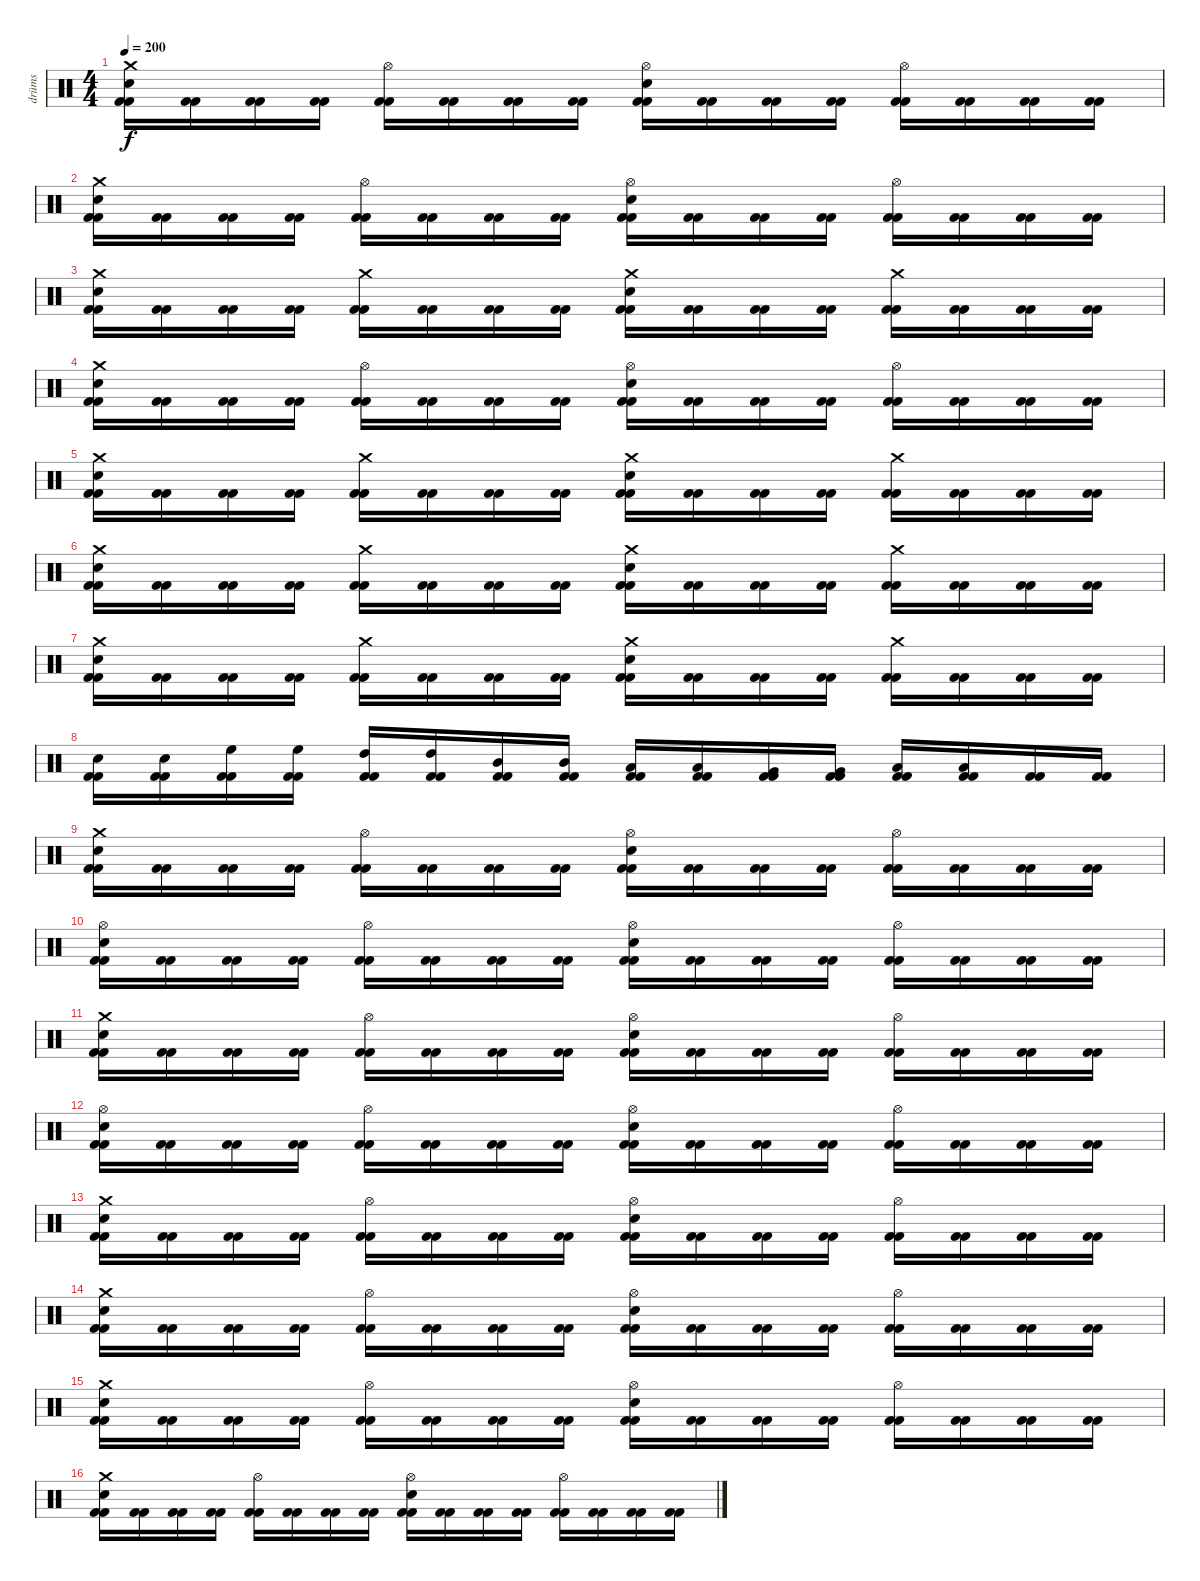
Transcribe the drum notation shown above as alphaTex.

\track ("drüms" "drüms") {instrument percussion}
\staff {score}
\articulation defaults
\ts (4 4)
\tempo 200
\clef neutral
\ks c
("Crash medium (hit)" "Snare (hit) 2" "Kick (hit) 2" "Kick (hit) 2").16{dy f} ("Kick (hit) 2" "Kick (hit) 2").16 ("Kick (hit) 2" "Kick (hit) 2").16 ("Kick (hit) 2" "Kick (hit) 2").16 ("Hi-Hat (open)" "Kick (hit) 2" "Kick (hit) 2").16 ("Kick (hit) 2" "Kick (hit) 2").16 ("Kick (hit) 2" "Kick (hit) 2").16 ("Kick (hit) 2" "Kick (hit) 2").16 ("Hi-Hat (open)" "Snare (hit) 2" "Kick (hit) 2" "Kick (hit) 2").16 ("Kick (hit) 2" "Kick (hit) 2").16 ("Kick (hit) 2" "Kick (hit) 2").16 ("Kick (hit) 2" "Kick (hit) 2").16 ("Hi-Hat (open)" "Kick (hit) 2" "Kick (hit) 2").16 ("Kick (hit) 2" "Kick (hit) 2").16 ("Kick (hit) 2" "Kick (hit) 2").16 ("Kick (hit) 2" "Kick (hit) 2").16 |
("Crash medium (hit)" "Snare (hit) 2" "Kick (hit) 2" "Kick (hit) 2").16 ("Kick (hit) 2" "Kick (hit) 2").16 ("Kick (hit) 2" "Kick (hit) 2").16 ("Kick (hit) 2" "Kick (hit) 2").16 ("Hi-Hat (open)" "Kick (hit) 2" "Kick (hit) 2").16 ("Kick (hit) 2" "Kick (hit) 2").16 ("Kick (hit) 2" "Kick (hit) 2").16 ("Kick (hit) 2" "Kick (hit) 2").16 ("Hi-Hat (open)" "Snare (hit) 2" "Kick (hit) 2" "Kick (hit) 2").16 ("Kick (hit) 2" "Kick (hit) 2").16 ("Kick (hit) 2" "Kick (hit) 2").16 ("Kick (hit) 2" "Kick (hit) 2").16 ("Hi-Hat (open)" "Kick (hit) 2" "Kick (hit) 2").16 ("Kick (hit) 2" "Kick (hit) 2").16 ("Kick (hit) 2" "Kick (hit) 2").16 ("Kick (hit) 2" "Kick (hit) 2").16 |
("Crash medium (hit)" "Snare (hit) 2" "Kick (hit) 2" "Kick (hit) 2").16 ("Kick (hit) 2" "Kick (hit) 2").16 ("Kick (hit) 2" "Kick (hit) 2").16 ("Kick (hit) 2" "Kick (hit) 2").16 ("Crash medium (hit)" "Kick (hit) 2" "Kick (hit) 2").16 ("Kick (hit) 2" "Kick (hit) 2").16 ("Kick (hit) 2" "Kick (hit) 2").16 ("Kick (hit) 2" "Kick (hit) 2").16 ("Crash medium (hit)" "Snare (hit) 2" "Kick (hit) 2" "Kick (hit) 2").16 ("Kick (hit) 2" "Kick (hit) 2").16 ("Kick (hit) 2" "Kick (hit) 2").16 ("Kick (hit) 2" "Kick (hit) 2").16 ("Crash medium (hit)" "Kick (hit) 2" "Kick (hit) 2").16 ("Kick (hit) 2" "Kick (hit) 2").16 ("Kick (hit) 2" "Kick (hit) 2").16 ("Kick (hit) 2" "Kick (hit) 2").16 |
("Crash medium (hit)" "Snare (hit) 2" "Kick (hit) 2" "Kick (hit) 2").16 ("Kick (hit) 2" "Kick (hit) 2").16 ("Kick (hit) 2" "Kick (hit) 2").16 ("Kick (hit) 2" "Kick (hit) 2").16 ("Hi-Hat (open)" "Kick (hit) 2" "Kick (hit) 2").16 ("Kick (hit) 2" "Kick (hit) 2").16 ("Kick (hit) 2" "Kick (hit) 2").16 ("Kick (hit) 2" "Kick (hit) 2").16 ("Hi-Hat (open)" "Snare (hit) 2" "Kick (hit) 2" "Kick (hit) 2").16 ("Kick (hit) 2" "Kick (hit) 2").16 ("Kick (hit) 2" "Kick (hit) 2").16 ("Kick (hit) 2" "Kick (hit) 2").16 ("Hi-Hat (open)" "Kick (hit) 2" "Kick (hit) 2").16 ("Kick (hit) 2" "Kick (hit) 2").16 ("Kick (hit) 2" "Kick (hit) 2").16 ("Kick (hit) 2" "Kick (hit) 2").16 |
("Crash medium (hit)" "Snare (hit) 2" "Kick (hit) 2" "Kick (hit) 2").16 ("Kick (hit) 2" "Kick (hit) 2").16 ("Kick (hit) 2" "Kick (hit) 2").16 ("Kick (hit) 2" "Kick (hit) 2").16 ("Crash medium (hit)" "Kick (hit) 2" "Kick (hit) 2").16 ("Kick (hit) 2" "Kick (hit) 2").16 ("Kick (hit) 2" "Kick (hit) 2").16 ("Kick (hit) 2" "Kick (hit) 2").16 ("Crash medium (hit)" "Snare (hit) 2" "Kick (hit) 2" "Kick (hit) 2").16 ("Kick (hit) 2" "Kick (hit) 2").16 ("Kick (hit) 2" "Kick (hit) 2").16 ("Kick (hit) 2" "Kick (hit) 2").16 ("Crash medium (hit)" "Kick (hit) 2" "Kick (hit) 2").16 ("Kick (hit) 2" "Kick (hit) 2").16 ("Kick (hit) 2" "Kick (hit) 2").16 ("Kick (hit) 2" "Kick (hit) 2").16 |
("Crash medium (hit)" "Snare (hit) 2" "Kick (hit) 2" "Kick (hit) 2").16 ("Kick (hit) 2" "Kick (hit) 2").16 ("Kick (hit) 2" "Kick (hit) 2").16 ("Kick (hit) 2" "Kick (hit) 2").16 ("Crash medium (hit)" "Kick (hit) 2" "Kick (hit) 2").16 ("Kick (hit) 2" "Kick (hit) 2").16 ("Kick (hit) 2" "Kick (hit) 2").16 ("Kick (hit) 2" "Kick (hit) 2").16 ("Crash medium (hit)" "Snare (hit) 2" "Kick (hit) 2" "Kick (hit) 2").16 ("Kick (hit) 2" "Kick (hit) 2").16 ("Kick (hit) 2" "Kick (hit) 2").16 ("Kick (hit) 2" "Kick (hit) 2").16 ("Crash medium (hit)" "Kick (hit) 2" "Kick (hit) 2").16 ("Kick (hit) 2" "Kick (hit) 2").16 ("Kick (hit) 2" "Kick (hit) 2").16 ("Kick (hit) 2" "Kick (hit) 2").16 |
("Crash medium (hit)" "Snare (hit) 2" "Kick (hit) 2" "Kick (hit) 2").16 ("Kick (hit) 2" "Kick (hit) 2").16 ("Kick (hit) 2" "Kick (hit) 2").16 ("Kick (hit) 2" "Kick (hit) 2").16 ("Crash medium (hit)" "Kick (hit) 2" "Kick (hit) 2").16 ("Kick (hit) 2" "Kick (hit) 2").16 ("Kick (hit) 2" "Kick (hit) 2").16 ("Kick (hit) 2" "Kick (hit) 2").16 ("Crash medium (hit)" "Snare (hit) 2" "Kick (hit) 2" "Kick (hit) 2").16 ("Kick (hit) 2" "Kick (hit) 2").16 ("Kick (hit) 2" "Kick (hit) 2").16 ("Kick (hit) 2" "Kick (hit) 2").16 ("Crash medium (hit)" "Kick (hit) 2" "Kick (hit) 2").16 ("Kick (hit) 2" "Kick (hit) 2").16 ("Kick (hit) 2" "Kick (hit) 2").16 ("Kick (hit) 2" "Kick (hit) 2").16 |
("Snare (hit) 2" "Kick (hit) 2" "Kick (hit) 2").16 ("Snare (hit) 2" "Kick (hit) 2" "Kick (hit) 2").16 ("High Floor Tom (hit)" "Kick (hit) 2" "Kick (hit) 2").16 ("High Floor Tom (hit)" "Kick (hit) 2" "Kick (hit) 2").16 ("High Tom (hit)" "Kick (hit) 2" "Kick (hit) 2").16 ("High Tom (hit)" "Kick (hit) 2" "Kick (hit) 2").16 ("Mid Tom (hit)" "Kick (hit) 2" "Kick (hit) 2").16 ("Mid Tom (hit)" "Kick (hit) 2" "Kick (hit) 2").16 ("Low Tom (hit)" "Kick (hit) 2" "Kick (hit) 2").16 ("Low Tom (hit)" "Kick (hit) 2" "Kick (hit) 2").16 ("Very Low Tom (hit)" "Kick (hit) 2" "Kick (hit) 2").16 ("Very Low Tom (hit)" "Kick (hit) 2" "Kick (hit) 2").16 ("Low Floor Tom (hit)" "Kick (hit) 2" "Kick (hit) 2").16 ("Low Floor Tom (hit)" "Kick (hit) 2" "Kick (hit) 2").16 ("Kick (hit) 2" "Kick (hit) 2").16 ("Kick (hit) 2" "Kick (hit) 2").16 |
("Crash medium (hit)" "Snare (hit) 2" "Kick (hit) 2" "Kick (hit) 2").16 ("Kick (hit) 2" "Kick (hit) 2").16 ("Kick (hit) 2" "Kick (hit) 2").16 ("Kick (hit) 2" "Kick (hit) 2").16 ("Hi-Hat (open)" "Kick (hit) 2" "Kick (hit) 2").16 ("Kick (hit) 2" "Kick (hit) 2").16 ("Kick (hit) 2" "Kick (hit) 2").16 ("Kick (hit) 2" "Kick (hit) 2").16 ("Hi-Hat (open)" "Snare (hit) 2" "Kick (hit) 2" "Kick (hit) 2").16 ("Kick (hit) 2" "Kick (hit) 2").16 ("Kick (hit) 2" "Kick (hit) 2").16 ("Kick (hit) 2" "Kick (hit) 2").16 ("Hi-Hat (open)" "Kick (hit) 2" "Kick (hit) 2").16 ("Kick (hit) 2" "Kick (hit) 2").16 ("Kick (hit) 2" "Kick (hit) 2").16 ("Kick (hit) 2" "Kick (hit) 2").16 |
("Hi-Hat (open)" "Snare (hit) 2" "Kick (hit) 2" "Kick (hit) 2").16 ("Kick (hit) 2" "Kick (hit) 2").16 ("Kick (hit) 2" "Kick (hit) 2").16 ("Kick (hit) 2" "Kick (hit) 2").16 ("Hi-Hat (open)" "Kick (hit) 2" "Kick (hit) 2").16 ("Kick (hit) 2" "Kick (hit) 2").16 ("Kick (hit) 2" "Kick (hit) 2").16 ("Kick (hit) 2" "Kick (hit) 2").16 ("Hi-Hat (open)" "Snare (hit) 2" "Kick (hit) 2" "Kick (hit) 2").16 ("Kick (hit) 2" "Kick (hit) 2").16 ("Kick (hit) 2" "Kick (hit) 2").16 ("Kick (hit) 2" "Kick (hit) 2").16 ("Hi-Hat (open)" "Kick (hit) 2" "Kick (hit) 2").16 ("Kick (hit) 2" "Kick (hit) 2").16 ("Kick (hit) 2" "Kick (hit) 2").16 ("Kick (hit) 2" "Kick (hit) 2").16 |
("Crash medium (hit)" "Snare (hit) 2" "Kick (hit) 2" "Kick (hit) 2").16 ("Kick (hit) 2" "Kick (hit) 2").16 ("Kick (hit) 2" "Kick (hit) 2").16 ("Kick (hit) 2" "Kick (hit) 2").16 ("Hi-Hat (open)" "Kick (hit) 2" "Kick (hit) 2").16 ("Kick (hit) 2" "Kick (hit) 2").16 ("Kick (hit) 2" "Kick (hit) 2").16 ("Kick (hit) 2" "Kick (hit) 2").16 ("Hi-Hat (open)" "Snare (hit) 2" "Kick (hit) 2" "Kick (hit) 2").16 ("Kick (hit) 2" "Kick (hit) 2").16 ("Kick (hit) 2" "Kick (hit) 2").16 ("Kick (hit) 2" "Kick (hit) 2").16 ("Hi-Hat (open)" "Kick (hit) 2" "Kick (hit) 2").16 ("Kick (hit) 2" "Kick (hit) 2").16 ("Kick (hit) 2" "Kick (hit) 2").16 ("Kick (hit) 2" "Kick (hit) 2").16 |
("Hi-Hat (open)" "Snare (hit) 2" "Kick (hit) 2" "Kick (hit) 2").16 ("Kick (hit) 2" "Kick (hit) 2").16 ("Kick (hit) 2" "Kick (hit) 2").16 ("Kick (hit) 2" "Kick (hit) 2").16 ("Hi-Hat (open)" "Kick (hit) 2" "Kick (hit) 2").16 ("Kick (hit) 2" "Kick (hit) 2").16 ("Kick (hit) 2" "Kick (hit) 2").16 ("Kick (hit) 2" "Kick (hit) 2").16 ("Hi-Hat (open)" "Snare (hit) 2" "Kick (hit) 2" "Kick (hit) 2").16 ("Kick (hit) 2" "Kick (hit) 2").16 ("Kick (hit) 2" "Kick (hit) 2").16 ("Kick (hit) 2" "Kick (hit) 2").16 ("Hi-Hat (open)" "Kick (hit) 2" "Kick (hit) 2").16 ("Kick (hit) 2" "Kick (hit) 2").16 ("Kick (hit) 2" "Kick (hit) 2").16 ("Kick (hit) 2" "Kick (hit) 2").16 |
("Crash medium (hit)" "Snare (hit) 2" "Kick (hit) 2" "Kick (hit) 2").16 ("Kick (hit) 2" "Kick (hit) 2").16 ("Kick (hit) 2" "Kick (hit) 2").16 ("Kick (hit) 2" "Kick (hit) 2").16 ("Hi-Hat (open)" "Kick (hit) 2" "Kick (hit) 2").16 ("Kick (hit) 2" "Kick (hit) 2").16 ("Kick (hit) 2" "Kick (hit) 2").16 ("Kick (hit) 2" "Kick (hit) 2").16 ("Hi-Hat (open)" "Snare (hit) 2" "Kick (hit) 2" "Kick (hit) 2").16 ("Kick (hit) 2" "Kick (hit) 2").16 ("Kick (hit) 2" "Kick (hit) 2").16 ("Kick (hit) 2" "Kick (hit) 2").16 ("Hi-Hat (open)" "Kick (hit) 2" "Kick (hit) 2").16 ("Kick (hit) 2" "Kick (hit) 2").16 ("Kick (hit) 2" "Kick (hit) 2").16 ("Kick (hit) 2" "Kick (hit) 2").16 |
("Crash medium (hit)" "Snare (hit) 2" "Kick (hit) 2" "Kick (hit) 2").16 ("Kick (hit) 2" "Kick (hit) 2").16 ("Kick (hit) 2" "Kick (hit) 2").16 ("Kick (hit) 2" "Kick (hit) 2").16 ("Hi-Hat (open)" "Kick (hit) 2" "Kick (hit) 2").16 ("Kick (hit) 2" "Kick (hit) 2").16 ("Kick (hit) 2" "Kick (hit) 2").16 ("Kick (hit) 2" "Kick (hit) 2").16 ("Hi-Hat (open)" "Snare (hit) 2" "Kick (hit) 2" "Kick (hit) 2").16 ("Kick (hit) 2" "Kick (hit) 2").16 ("Kick (hit) 2" "Kick (hit) 2").16 ("Kick (hit) 2" "Kick (hit) 2").16 ("Hi-Hat (open)" "Kick (hit) 2" "Kick (hit) 2").16 ("Kick (hit) 2" "Kick (hit) 2").16 ("Kick (hit) 2" "Kick (hit) 2").16 ("Kick (hit) 2" "Kick (hit) 2").16 |
("Crash medium (hit)" "Snare (hit) 2" "Kick (hit) 2" "Kick (hit) 2").16 ("Kick (hit) 2" "Kick (hit) 2").16 ("Kick (hit) 2" "Kick (hit) 2").16 ("Kick (hit) 2" "Kick (hit) 2").16 ("Hi-Hat (open)" "Kick (hit) 2" "Kick (hit) 2").16 ("Kick (hit) 2" "Kick (hit) 2").16 ("Kick (hit) 2" "Kick (hit) 2").16 ("Kick (hit) 2" "Kick (hit) 2").16 ("Hi-Hat (open)" "Snare (hit) 2" "Kick (hit) 2" "Kick (hit) 2").16 ("Kick (hit) 2" "Kick (hit) 2").16 ("Kick (hit) 2" "Kick (hit) 2").16 ("Kick (hit) 2" "Kick (hit) 2").16 ("Hi-Hat (open)" "Kick (hit) 2" "Kick (hit) 2").16 ("Kick (hit) 2" "Kick (hit) 2").16 ("Kick (hit) 2" "Kick (hit) 2").16 ("Kick (hit) 2" "Kick (hit) 2").16 |
("Crash medium (hit)" "Snare (hit) 2" "Kick (hit) 2" "Kick (hit) 2").16 ("Kick (hit) 2" "Kick (hit) 2").16 ("Kick (hit) 2" "Kick (hit) 2").16 ("Kick (hit) 2" "Kick (hit) 2").16 ("Hi-Hat (open)" "Kick (hit) 2" "Kick (hit) 2").16 ("Kick (hit) 2" "Kick (hit) 2").16 ("Kick (hit) 2" "Kick (hit) 2").16 ("Kick (hit) 2" "Kick (hit) 2").16 ("Hi-Hat (open)" "Snare (hit) 2" "Kick (hit) 2" "Kick (hit) 2").16 ("Kick (hit) 2" "Kick (hit) 2").16 ("Kick (hit) 2" "Kick (hit) 2").16 ("Kick (hit) 2" "Kick (hit) 2").16 ("Hi-Hat (open)" "Kick (hit) 2" "Kick (hit) 2").16 ("Kick (hit) 2" "Kick (hit) 2").16 ("Kick (hit) 2" "Kick (hit) 2").16 ("Kick (hit) 2" "Kick (hit) 2").16
